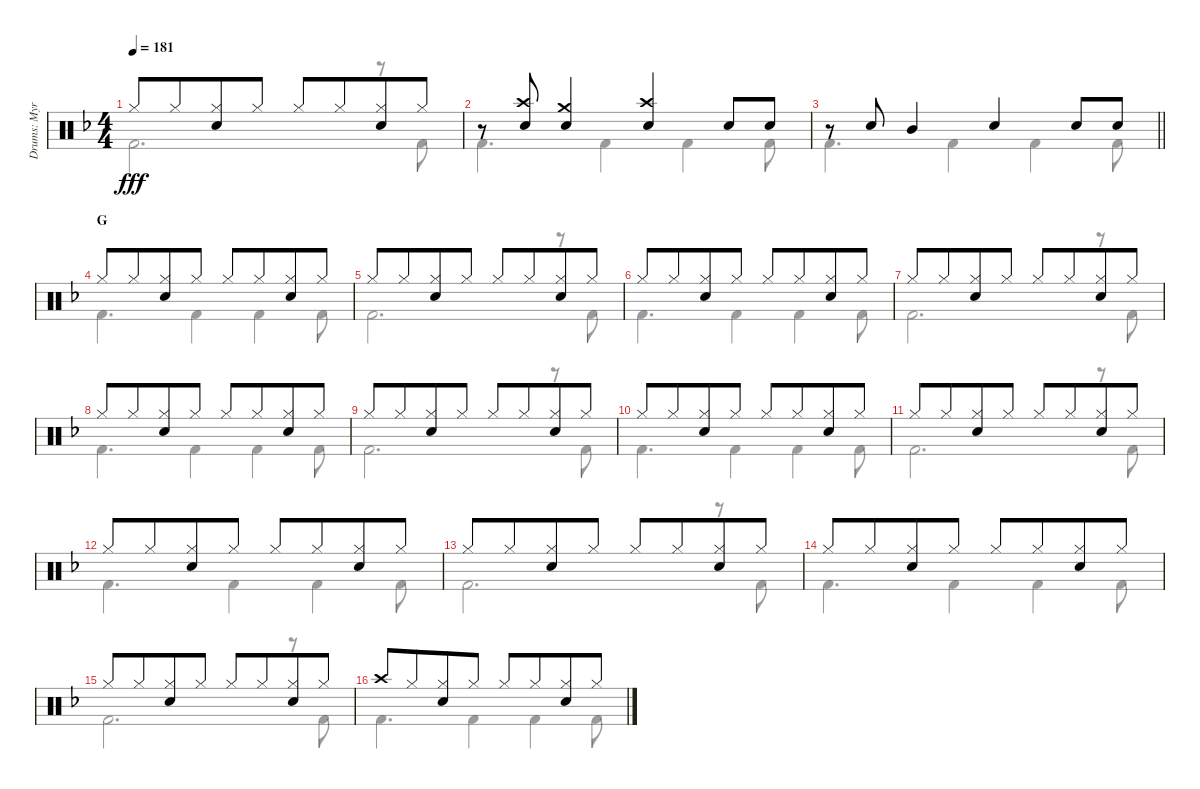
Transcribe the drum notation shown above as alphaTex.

\track ("Drums: Myron" "Drums: Myr") {instrument percussion}
\staff {score}
\articulation defaults
\voice
\ts (4 4)
\tempo 181
\clef neutral
\ks f "Hi-Hat (closed)".8{dy fff} "Hi-Hat (closed)".8{beam merge}
("Hi-Hat (closed)" "Electric Snare (hit)").8 "Hi-Hat (closed)".8 "Hi-Hat (closed)".8 "Hi-Hat (closed)".8{beam merge} ("Hi-Hat (closed)" "Electric Snare (hit)").8 "Hi-Hat (closed)".8 |
r.8 ("Crash high (hit)" "Electric Snare (hit)").8 ("Crash medium (hit)" "Electric Snare (hit)").4 ("Crash high (hit)" "Electric Snare (hit)").4 "Electric Snare (hit)".8 "Electric Snare (hit)".8 |
\barLineRight lightlight
r.8 "Electric Snare (hit)".8 "Mid Tom (hit)".4 "Snare (hit) 2".4 "Electric Snare (hit)".8 "Electric Snare (hit)".8 |
\section ("" "G")
"Hi-Hat (closed)".8 "Hi-Hat (closed)".8{beam merge} ("Hi-Hat (closed)" "Electric Snare (hit)").8 "Hi-Hat (closed)".8 "Hi-Hat (closed)".8 "Hi-Hat (closed)".8{beam merge} ("Hi-Hat (closed)" "Electric Snare (hit)").8 "Hi-Hat (closed)".8 |
"Hi-Hat (closed)".8 "Hi-Hat (closed)".8{beam merge} ("Hi-Hat (closed)" "Electric Snare (hit)").8 "Hi-Hat (closed)".8 "Hi-Hat (closed)".8 "Hi-Hat (closed)".8{beam merge} ("Hi-Hat (closed)" "Electric Snare (hit)").8 "Hi-Hat (closed)".8 |
"Hi-Hat (closed)".8 "Hi-Hat (closed)".8{beam merge} ("Hi-Hat (closed)" "Electric Snare (hit)").8 "Hi-Hat (closed)".8 "Hi-Hat (closed)".8 "Hi-Hat (closed)".8{beam merge} ("Hi-Hat (closed)" "Electric Snare (hit)").8 "Hi-Hat (closed)".8 |
"Hi-Hat (closed)".8 "Hi-Hat (closed)".8{beam merge} ("Hi-Hat (closed)" "Electric Snare (hit)").8 "Hi-Hat (closed)".8 "Hi-Hat (closed)".8 "Hi-Hat (closed)".8{beam merge} ("Hi-Hat (closed)" "Electric Snare (hit)").8 "Hi-Hat (closed)".8 |
"Hi-Hat (closed)".8 "Hi-Hat (closed)".8{beam merge} ("Hi-Hat (closed)" "Electric Snare (hit)").8 "Hi-Hat (closed)".8 "Hi-Hat (closed)".8 "Hi-Hat (closed)".8{beam merge} ("Hi-Hat (closed)" "Electric Snare (hit)").8 "Hi-Hat (closed)".8 |
"Hi-Hat (closed)".8 "Hi-Hat (closed)".8{beam merge} ("Hi-Hat (closed)" "Electric Snare (hit)").8 "Hi-Hat (closed)".8 "Hi-Hat (closed)".8 "Hi-Hat (closed)".8{beam merge} ("Hi-Hat (closed)" "Electric Snare (hit)").8 "Hi-Hat (closed)".8 |
"Hi-Hat (closed)".8 "Hi-Hat (closed)".8{beam merge} ("Hi-Hat (closed)" "Electric Snare (hit)").8 "Hi-Hat (closed)".8 "Hi-Hat (closed)".8 "Hi-Hat (closed)".8{beam merge} ("Hi-Hat (closed)" "Electric Snare (hit)").8 "Hi-Hat (closed)".8 |
"Hi-Hat (closed)".8 "Hi-Hat (closed)".8{beam merge} ("Hi-Hat (closed)" "Electric Snare (hit)").8 "Hi-Hat (closed)".8 "Hi-Hat (closed)".8 "Hi-Hat (closed)".8{beam merge} ("Hi-Hat (closed)" "Electric Snare (hit)").8 "Hi-Hat (closed)".8 |
"Hi-Hat (closed)".8 "Hi-Hat (closed)".8{beam merge} ("Hi-Hat (closed)" "Electric Snare (hit)").8 "Hi-Hat (closed)".8 "Hi-Hat (closed)".8 "Hi-Hat (closed)".8{beam merge} ("Hi-Hat (closed)" "Electric Snare (hit)").8 "Hi-Hat (closed)".8 |
"Hi-Hat (closed)".8 "Hi-Hat (closed)".8{beam merge} ("Hi-Hat (closed)" "Electric Snare (hit)").8 "Hi-Hat (closed)".8 "Hi-Hat (closed)".8 "Hi-Hat (closed)".8{beam merge} ("Hi-Hat (closed)" "Electric Snare (hit)").8 "Hi-Hat (closed)".8 |
"Hi-Hat (closed)".8 "Hi-Hat (closed)".8{beam merge} ("Hi-Hat (closed)" "Electric Snare (hit)").8 "Hi-Hat (closed)".8 "Hi-Hat (closed)".8 "Hi-Hat (closed)".8{beam merge} ("Hi-Hat (closed)" "Electric Snare (hit)").8 "Hi-Hat (closed)".8 |
"Hi-Hat (closed)".8 "Hi-Hat (closed)".8{beam merge} ("Hi-Hat (closed)" "Electric Snare (hit)").8 "Hi-Hat (closed)".8 "Hi-Hat (closed)".8 "Hi-Hat (closed)".8{beam merge} ("Hi-Hat (closed)" "Electric Snare (hit)").8 "Hi-Hat (closed)".8 |
"Crash high (hit)".8 "Hi-Hat (closed)".8{beam merge} ("Hi-Hat (closed)" "Electric Snare (hit)").8 "Hi-Hat (closed)".8 "Hi-Hat (closed)".8 "Hi-Hat (closed)".8{beam merge} ("Hi-Hat (closed)" "Electric Snare (hit)").8 "Hi-Hat (closed)".8
\voice
\clef neutral
\ottava regular
\simile none
\ks f "Kick (hit) 2".2{d dy fff}
r.8 "Kick (hit) 2".8 |
"Kick (hit) 2".4{d} "Kick (hit) 2".4 "Kick (hit) 2".4 "Kick (hit) 2".8 |
\barLineRight lightlight "Kick (hit) 2".4{d} "Kick (hit) 2".4 "Kick (hit) 2".4 "Kick (hit) 2".8
|
"Kick (hit) 2".4{d} "Kick (hit) 2".4 "Kick (hit) 2".4 "Kick (hit) 2".8 |
"Kick (hit) 2".2{d} r.8 "Kick (hit) 2".8 |
"Kick (hit) 2".4{d} "Kick (hit) 2".4 "Kick (hit) 2".4 "Kick (hit) 2".8 |
"Kick (hit) 2".2{d} r.8 "Kick (hit) 2".8 |
"Kick (hit) 2".4{d} "Kick (hit) 2".4 "Kick (hit) 2".4 "Kick (hit) 2".8 |
"Kick (hit) 2".2{d} r.8 "Kick (hit) 2".8 |
"Kick (hit) 2".4{d} "Kick (hit) 2".4 "Kick (hit) 2".4 "Kick (hit) 2".8 |
"Kick (hit) 2".2{d} r.8 "Kick (hit) 2".8 |
"Kick (hit) 2".4{d} "Kick (hit) 2".4 "Kick (hit) 2".4 "Kick (hit) 2".8 |
"Kick (hit) 2".2{d} r.8 "Kick (hit) 2".8 |
"Kick (hit) 2".4{d} "Kick (hit) 2".4 "Kick (hit) 2".4 "Kick (hit) 2".8 |
"Kick (hit) 2".2{d} r.8 "Kick (hit) 2".8 |
"Kick (hit) 2".4{d} "Kick (hit) 2".4 "Kick (hit) 2".4 "Kick (hit) 2".8
